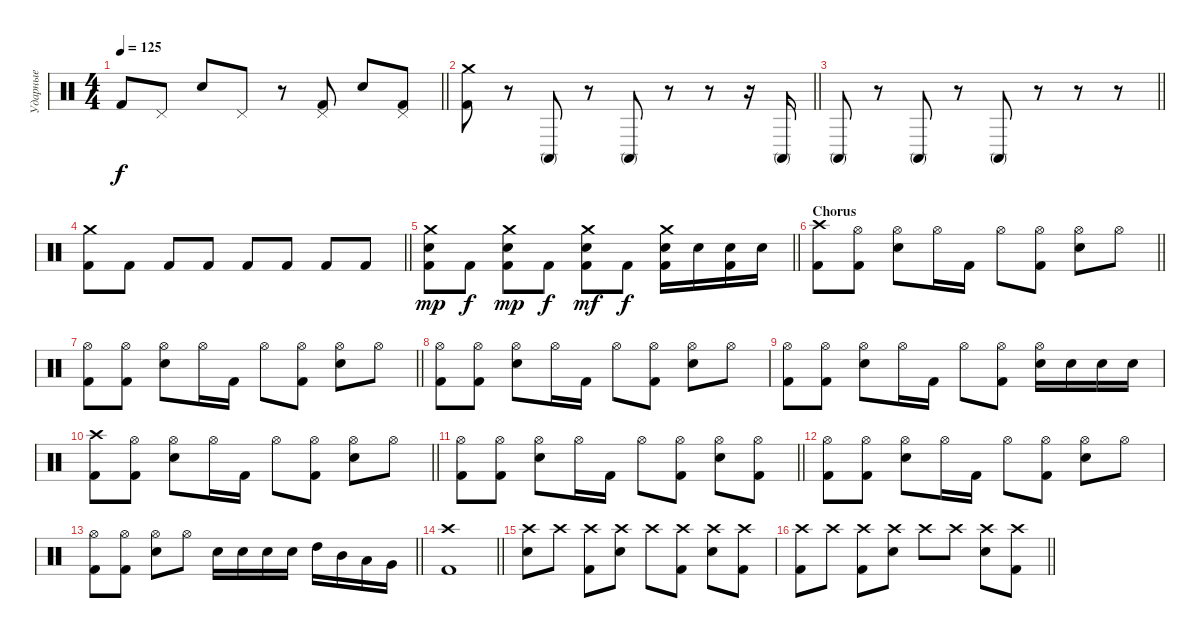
\track ("Ударные" "Ударные") {instrument percussion}
\staff {score}
\articulation defaults
\ts (4 4)
\tempo 125
\clef neutral
\barLineRight lightlight
\ks c "Kick (hit) 2".8{dy f} "Pedal Hi-Hat (hit)".8 "Electric Snare (hit)".8 "Pedal Hi-Hat (hit)".8
r.8 ("Pedal Hi-Hat (hit)" "Kick (hit) 2").8 "Electric Snare (hit)".8 ("Pedal Hi-Hat (hit)" "Kick (hit) 2").8 |
\barLineRight lightlight
("Crash medium (hit)" "Kick (hit) 2").8 r.8 "Conga high (mute)".8 r.8 "Conga high (mute)".8 r.8 r.8 r.16 "Conga high (mute)".16 |
\barLineRight lightlight "Conga high (mute)".8
r.8 "Conga high (mute)".8 r.8 "Conga high (mute)".8 r.8 r.8 r.8 |
\barLineRight lightlight
("Crash medium (hit)" "Kick (hit) 2").8 "Kick (hit) 2".8 "Kick (hit) 2".8 "Kick (hit) 2".8 "Kick (hit) 2".8 "Kick (hit) 2".8 "Kick (hit) 2".8 "Kick (hit) 2".8 |
\barLineRight lightlight
("Crash medium (hit)" "Electric Snare (hit)" "Kick (hit) 2").8{dy mp} "Kick (hit) 2".8{dy f} ("Crash medium (hit)" "Electric Snare (hit)" "Kick (hit) 2").8{dy mp} "Kick (hit) 2".8{dy f} ("Crash medium (hit)" "Electric Snare (hit)" "Kick (hit) 2").8{dy mf} "Kick (hit) 2".8{dy f} ("Crash medium (hit)" "Electric Snare (hit)" "Kick (hit) 2").16 "Electric Snare (hit)".16 ("Electric Snare (hit)" "Kick (hit) 2").16 "Electric Snare (hit)".16 |
\section ("" "Chorus")
\barLineRight lightlight
("Crash high (hit)" "Kick (hit) 2").8 ("Hi-Hat (open)" "Kick (hit) 2").8 ("Hi-Hat (open)" "Electric Snare (hit)").8 "Hi-Hat (open)".16 "Kick (hit) 2".16 "Hi-Hat (open)".8 ("Hi-Hat (open)" "Kick (hit) 2").8 ("Hi-Hat (open)" "Electric Snare (hit)").8 "Hi-Hat (open)".8 |
\barLineRight lightlight
("Hi-Hat (open)" "Kick (hit) 2").8 ("Hi-Hat (open)" "Kick (hit) 2").8 ("Hi-Hat (open)" "Electric Snare (hit)").8 "Hi-Hat (open)".16 "Kick (hit) 2".16 "Hi-Hat (open)".8 ("Hi-Hat (open)" "Kick (hit) 2").8 ("Hi-Hat (open)" "Electric Snare (hit)").8 "Hi-Hat (open)".8 |
("Hi-Hat (open)" "Kick (hit) 2").8 ("Hi-Hat (open)" "Kick (hit) 2").8 ("Hi-Hat (open)" "Electric Snare (hit)").8 "Hi-Hat (open)".16 "Kick (hit) 2".16 "Hi-Hat (open)".8 ("Hi-Hat (open)" "Kick (hit) 2").8 ("Hi-Hat (open)" "Electric Snare (hit)").8 "Hi-Hat (open)".8 |
("Hi-Hat (open)" "Kick (hit) 2").8 ("Hi-Hat (open)" "Kick (hit) 2").8 ("Hi-Hat (open)" "Electric Snare (hit)").8 "Hi-Hat (open)".16 "Kick (hit) 2".16 "Hi-Hat (open)".8 ("Hi-Hat (open)" "Kick (hit) 2").8 ("Hi-Hat (open)" "Electric Snare (hit)").16 "Electric Snare (hit)".16 "Electric Snare (hit)".16 "Electric Snare (hit)".16 |
\barLineRight lightlight
("Crash high (hit)" "Kick (hit) 2").8 ("Hi-Hat (open)" "Kick (hit) 2").8 ("Hi-Hat (open)" "Electric Snare (hit)").8 "Hi-Hat (open)".16 "Kick (hit) 2".16 "Hi-Hat (open)".8 ("Hi-Hat (open)" "Kick (hit) 2").8 ("Hi-Hat (open)" "Electric Snare (hit)").8 "Hi-Hat (open)".8 |
\barLineRight lightlight
("Hi-Hat (open)" "Kick (hit) 2").8 ("Hi-Hat (open)" "Kick (hit) 2").8 ("Hi-Hat (open)" "Electric Snare (hit)").8 "Hi-Hat (open)".16 "Kick (hit) 2".16 "Hi-Hat (open)".8 ("Hi-Hat (open)" "Kick (hit) 2").8 ("Hi-Hat (open)" "Electric Snare (hit)").8 ("Hi-Hat (open)" "Kick (hit) 2").8 |
("Hi-Hat (open)" "Kick (hit) 2").8 ("Hi-Hat (open)" "Kick (hit) 2").8 ("Hi-Hat (open)" "Electric Snare (hit)").8 "Hi-Hat (open)".16 "Kick (hit) 2".16 "Hi-Hat (open)".8 ("Hi-Hat (open)" "Kick (hit) 2").8 ("Hi-Hat (open)" "Electric Snare (hit)").8 "Hi-Hat (open)".8 |
\barLineRight lightlight
("Hi-Hat (open)" "Kick (hit) 2").8 ("Hi-Hat (open)" "Kick (hit) 2").8 ("Hi-Hat (open)" "Electric Snare (hit)").8 "Hi-Hat (open)".8 "Electric Snare (hit)".16 "Electric Snare (hit)".16 "Electric Snare (hit)".16 "Electric Snare (hit)".16 "High Tom (hit)".16 "Mid Tom (hit)".16 "Low Tom (hit)".16 "Very Low Tom (hit)".16 |
\barLineRight lightlight
("Crash high (hit)" "Kick (hit) 2").1 |
("Crash high (hit)" "Electric Snare (hit)").8 "Crash high (hit)".8 ("Crash high (hit)" "Kick (hit) 2").8 ("Crash high (hit)" "Electric Snare (hit)").8 "Crash high (hit)".8 ("Crash high (hit)" "Kick (hit) 2").8 ("Crash high (hit)" "Electric Snare (hit)").8 ("Crash high (hit)" "Kick (hit) 2").8 |
\barLineRight lightlight
("Crash high (hit)" "Kick (hit) 2").8 "Crash high (hit)".8 ("Crash high (hit)" "Kick (hit) 2").8 ("Crash high (hit)" "Electric Snare (hit)").8 "Crash high (hit)".8 "Crash high (hit)".8 ("Crash high (hit)" "Electric Snare (hit)").8 ("Crash high (hit)" "Kick (hit) 2").8
